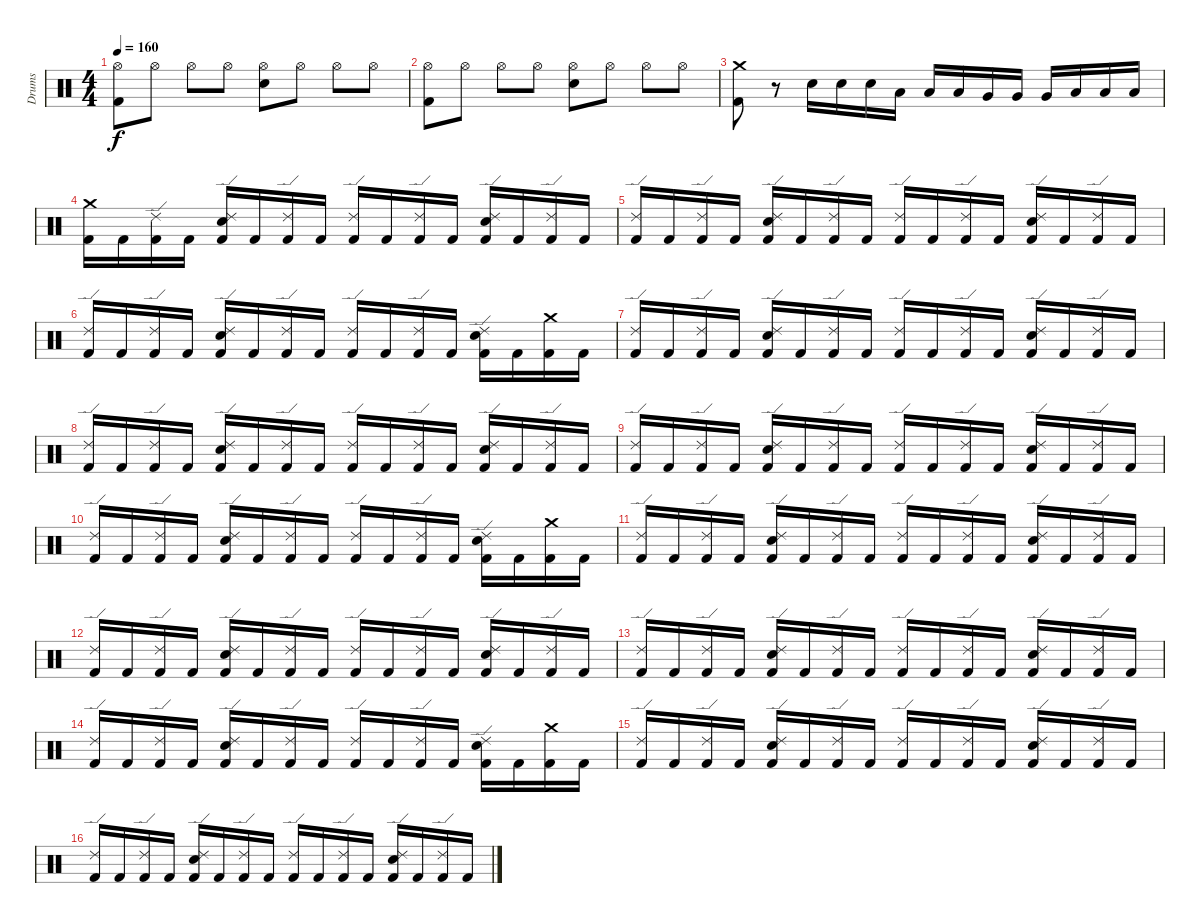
\track ("Drums" "Drums") {instrument percussion}
\staff {score}
\articulation defaults
\ts (4 4)
\tempo 160
\clef neutral
\ks c
("Hi-Hat (open)" "Kick (hit) 2").8{dy f} "Hi-Hat (open)".8 "Hi-Hat (open)".8 "Hi-Hat (open)".8 ("Hi-Hat (open)" "Electric Snare (hit)").8 "Hi-Hat (open)".8 "Hi-Hat (open)".8 "Hi-Hat (open)".8 |
("Hi-Hat (open)" "Kick (hit) 2").8 "Hi-Hat (open)".8 "Hi-Hat (open)".8 "Hi-Hat (open)".8 ("Hi-Hat (open)" "Electric Snare (hit)").8 "Hi-Hat (open)".8 "Hi-Hat (open)".8 "Hi-Hat (open)".8 |
("Crash medium (hit)" "Kick (hit) 2").8 r.8 "Electric Snare (hit)".16 "Electric Snare (hit)".16 "Electric Snare (hit)".16 "Low Tom (hit)".16 "Low Tom (hit)".16 "Low Tom (hit)".16 "Very Low Tom (hit)".16 "Very Low Tom (hit)".16 "Very Low Tom (hit)".16 "Low Floor Tom (hit)".16 "Low Floor Tom (hit)".16 "Low Floor Tom (hit)".16 |
("Kick (hit) 2" "Crash medium (hit)").16 "Kick (hit) 2".16 ("Ride (edge) 2" "Kick (hit) 2").16 "Kick (hit) 2".16 ("Ride (edge) 2" "Electric Snare (hit)" "Kick (hit) 2").16 "Kick (hit) 2".16 ("Ride (edge) 2" "Kick (hit) 2").16 "Kick (hit) 2".16 ("Ride (edge) 2" "Kick (hit) 2").16 "Kick (hit) 2".16 ("Ride (edge) 2" "Kick (hit) 2").16 "Kick (hit) 2".16 ("Ride (edge) 2" "Electric Snare (hit)" "Kick (hit) 2").16 "Kick (hit) 2".16 ("Ride (edge) 2" "Kick (hit) 2").16 "Kick (hit) 2".16 |
("Ride (edge) 2" "Kick (hit) 2").16 "Kick (hit) 2".16 ("Ride (edge) 2" "Kick (hit) 2").16 "Kick (hit) 2".16 ("Ride (edge) 2" "Electric Snare (hit)" "Kick (hit) 2").16 "Kick (hit) 2".16 ("Ride (edge) 2" "Kick (hit) 2").16 "Kick (hit) 2".16 ("Ride (edge) 2" "Kick (hit) 2").16 "Kick (hit) 2".16 ("Ride (edge) 2" "Kick (hit) 2").16 "Kick (hit) 2".16 ("Ride (edge) 2" "Electric Snare (hit)" "Kick (hit) 2").16 "Kick (hit) 2".16 ("Ride (edge) 2" "Kick (hit) 2").16 "Kick (hit) 2".16 |
("Ride (edge) 2" "Kick (hit) 2").16 "Kick (hit) 2".16 ("Ride (edge) 2" "Kick (hit) 2").16 "Kick (hit) 2".16 ("Ride (edge) 2" "Electric Snare (hit)" "Kick (hit) 2").16 "Kick (hit) 2".16 ("Ride (edge) 2" "Kick (hit) 2").16 "Kick (hit) 2".16 ("Ride (edge) 2" "Kick (hit) 2").16 "Kick (hit) 2".16 ("Ride (edge) 2" "Kick (hit) 2").16 "Kick (hit) 2".16 ("Ride (edge) 2" "Electric Snare (hit)" "Kick (hit) 2").16 "Kick (hit) 2".16 ("Crash medium (hit)" "Kick (hit) 2").16 "Kick (hit) 2".16 |
("Ride (edge) 2" "Kick (hit) 2").16 "Kick (hit) 2".16 ("Ride (edge) 2" "Kick (hit) 2").16 "Kick (hit) 2".16 ("Ride (edge) 2" "Electric Snare (hit)" "Kick (hit) 2").16 "Kick (hit) 2".16 ("Ride (edge) 2" "Kick (hit) 2").16 "Kick (hit) 2".16 ("Ride (edge) 2" "Kick (hit) 2").16 "Kick (hit) 2".16 ("Ride (edge) 2" "Kick (hit) 2").16 "Kick (hit) 2".16 ("Ride (edge) 2" "Electric Snare (hit)" "Kick (hit) 2").16 "Kick (hit) 2".16 ("Ride (edge) 2" "Kick (hit) 2").16 "Kick (hit) 2".16 |
("Ride (edge) 2" "Kick (hit) 2").16 "Kick (hit) 2".16 ("Ride (edge) 2" "Kick (hit) 2").16 "Kick (hit) 2".16 ("Ride (edge) 2" "Electric Snare (hit)" "Kick (hit) 2").16 "Kick (hit) 2".16 ("Ride (edge) 2" "Kick (hit) 2").16 "Kick (hit) 2".16 ("Ride (edge) 2" "Kick (hit) 2").16 "Kick (hit) 2".16 ("Ride (edge) 2" "Kick (hit) 2").16 "Kick (hit) 2".16 ("Ride (edge) 2" "Electric Snare (hit)" "Kick (hit) 2").16 "Kick (hit) 2".16 ("Ride (edge) 2" "Kick (hit) 2").16 "Kick (hit) 2".16 |
("Ride (edge) 2" "Kick (hit) 2").16 "Kick (hit) 2".16 ("Ride (edge) 2" "Kick (hit) 2").16 "Kick (hit) 2".16 ("Ride (edge) 2" "Electric Snare (hit)" "Kick (hit) 2").16 "Kick (hit) 2".16 ("Ride (edge) 2" "Kick (hit) 2").16 "Kick (hit) 2".16 ("Ride (edge) 2" "Kick (hit) 2").16 "Kick (hit) 2".16 ("Ride (edge) 2" "Kick (hit) 2").16 "Kick (hit) 2".16 ("Ride (edge) 2" "Electric Snare (hit)" "Kick (hit) 2").16 "Kick (hit) 2".16 ("Ride (edge) 2" "Kick (hit) 2").16 "Kick (hit) 2".16 |
("Ride (edge) 2" "Kick (hit) 2").16 "Kick (hit) 2".16 ("Ride (edge) 2" "Kick (hit) 2").16 "Kick (hit) 2".16 ("Ride (edge) 2" "Electric Snare (hit)" "Kick (hit) 2").16 "Kick (hit) 2".16 ("Ride (edge) 2" "Kick (hit) 2").16 "Kick (hit) 2".16 ("Ride (edge) 2" "Kick (hit) 2").16 "Kick (hit) 2".16 ("Ride (edge) 2" "Kick (hit) 2").16 "Kick (hit) 2".16 ("Ride (edge) 2" "Electric Snare (hit)" "Kick (hit) 2").16 "Kick (hit) 2".16 ("Crash medium (hit)" "Kick (hit) 2").16 "Kick (hit) 2".16 |
("Ride (edge) 2" "Kick (hit) 2").16 "Kick (hit) 2".16 ("Ride (edge) 2" "Kick (hit) 2").16 "Kick (hit) 2".16 ("Ride (edge) 2" "Electric Snare (hit)" "Kick (hit) 2").16 "Kick (hit) 2".16 ("Ride (edge) 2" "Kick (hit) 2").16 "Kick (hit) 2".16 ("Ride (edge) 2" "Kick (hit) 2").16 "Kick (hit) 2".16 ("Ride (edge) 2" "Kick (hit) 2").16 "Kick (hit) 2".16 ("Ride (edge) 2" "Electric Snare (hit)" "Kick (hit) 2").16 "Kick (hit) 2".16 ("Ride (edge) 2" "Kick (hit) 2").16 "Kick (hit) 2".16 |
("Ride (edge) 2" "Kick (hit) 2").16 "Kick (hit) 2".16 ("Ride (edge) 2" "Kick (hit) 2").16 "Kick (hit) 2".16 ("Ride (edge) 2" "Electric Snare (hit)" "Kick (hit) 2").16 "Kick (hit) 2".16 ("Ride (edge) 2" "Kick (hit) 2").16 "Kick (hit) 2".16 ("Ride (edge) 2" "Kick (hit) 2").16 "Kick (hit) 2".16 ("Ride (edge) 2" "Kick (hit) 2").16 "Kick (hit) 2".16 ("Ride (edge) 2" "Electric Snare (hit)" "Kick (hit) 2").16 "Kick (hit) 2".16 ("Ride (edge) 2" "Kick (hit) 2").16 "Kick (hit) 2".16 |
("Ride (edge) 2" "Kick (hit) 2").16 "Kick (hit) 2".16 ("Ride (edge) 2" "Kick (hit) 2").16 "Kick (hit) 2".16 ("Ride (edge) 2" "Electric Snare (hit)" "Kick (hit) 2").16 "Kick (hit) 2".16 ("Ride (edge) 2" "Kick (hit) 2").16 "Kick (hit) 2".16 ("Ride (edge) 2" "Kick (hit) 2").16 "Kick (hit) 2".16 ("Ride (edge) 2" "Kick (hit) 2").16 "Kick (hit) 2".16 ("Ride (edge) 2" "Electric Snare (hit)" "Kick (hit) 2").16 "Kick (hit) 2".16 ("Ride (edge) 2" "Kick (hit) 2").16 "Kick (hit) 2".16 |
("Ride (edge) 2" "Kick (hit) 2").16 "Kick (hit) 2".16 ("Ride (edge) 2" "Kick (hit) 2").16 "Kick (hit) 2".16 ("Ride (edge) 2" "Electric Snare (hit)" "Kick (hit) 2").16 "Kick (hit) 2".16 ("Ride (edge) 2" "Kick (hit) 2").16 "Kick (hit) 2".16 ("Ride (edge) 2" "Kick (hit) 2").16 "Kick (hit) 2".16 ("Ride (edge) 2" "Kick (hit) 2").16 "Kick (hit) 2".16 ("Ride (edge) 2" "Electric Snare (hit)" "Kick (hit) 2").16 "Kick (hit) 2".16 ("Crash medium (hit)" "Kick (hit) 2").16 "Kick (hit) 2".16 |
("Ride (edge) 2" "Kick (hit) 2").16 "Kick (hit) 2".16 ("Ride (edge) 2" "Kick (hit) 2").16 "Kick (hit) 2".16 ("Ride (edge) 2" "Electric Snare (hit)" "Kick (hit) 2").16 "Kick (hit) 2".16 ("Ride (edge) 2" "Kick (hit) 2").16 "Kick (hit) 2".16 ("Ride (edge) 2" "Kick (hit) 2").16 "Kick (hit) 2".16 ("Ride (edge) 2" "Kick (hit) 2").16 "Kick (hit) 2".16 ("Ride (edge) 2" "Electric Snare (hit)" "Kick (hit) 2").16 "Kick (hit) 2".16 ("Ride (edge) 2" "Kick (hit) 2").16 "Kick (hit) 2".16 |
("Ride (edge) 2" "Kick (hit) 2").16 "Kick (hit) 2".16 ("Ride (edge) 2" "Kick (hit) 2").16 "Kick (hit) 2".16 ("Ride (edge) 2" "Electric Snare (hit)" "Kick (hit) 2").16 "Kick (hit) 2".16 ("Ride (edge) 2" "Kick (hit) 2").16 "Kick (hit) 2".16 ("Ride (edge) 2" "Kick (hit) 2").16 "Kick (hit) 2".16 ("Ride (edge) 2" "Kick (hit) 2").16 "Kick (hit) 2".16 ("Ride (edge) 2" "Electric Snare (hit)" "Kick (hit) 2").16 "Kick (hit) 2".16 ("Ride (edge) 2" "Kick (hit) 2").16 "Kick (hit) 2".16
